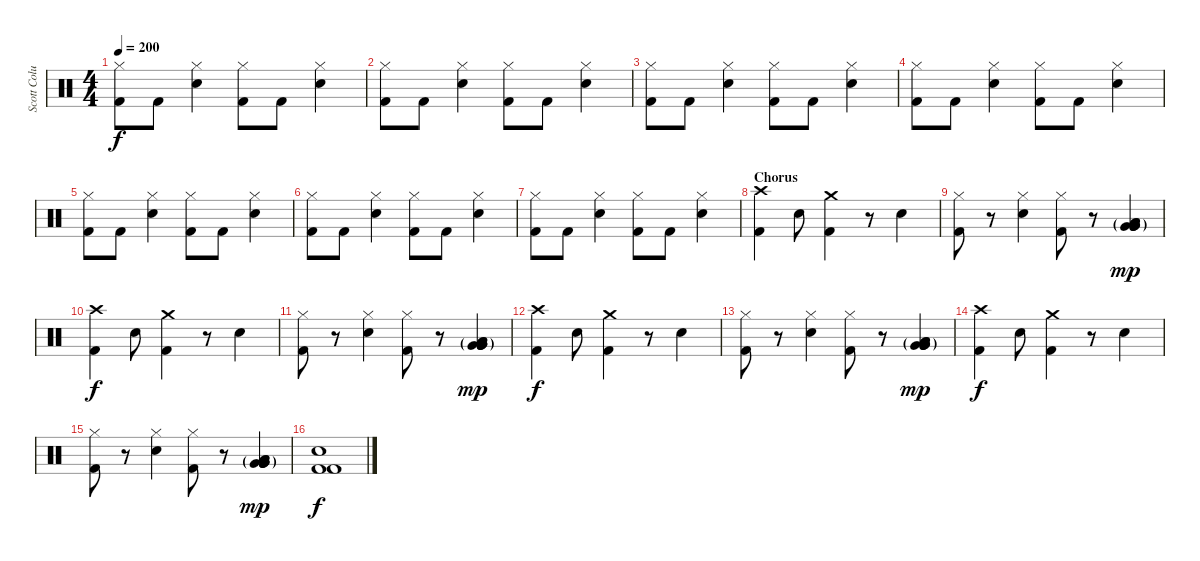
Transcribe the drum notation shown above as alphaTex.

\track ("Scott Columbus" "Scott Colu") {instrument percussion}
\staff {score}
\articulation defaults
\ts (4 4)
\tempo 200
\clef neutral
\ks c
("Hi-Hat (closed)" "Kick (hit) 2").8{dy f} "Kick (hit) 2".8 ("Hi-Hat (closed)" "Snare (hit) 2").4 ("Hi-Hat (closed)" "Kick (hit) 2").8 "Kick (hit) 2".8 ("Hi-Hat (closed)" "Snare (hit) 2").4 |
("Hi-Hat (closed)" "Kick (hit) 2").8 "Kick (hit) 2".8 ("Hi-Hat (closed)" "Snare (hit) 2").4 ("Hi-Hat (closed)" "Kick (hit) 2").8 "Kick (hit) 2".8 ("Hi-Hat (closed)" "Snare (hit) 2").4 |
("Hi-Hat (closed)" "Kick (hit) 2").8 "Kick (hit) 2".8 ("Hi-Hat (closed)" "Snare (hit) 2").4 ("Hi-Hat (closed)" "Kick (hit) 2").8 "Kick (hit) 2".8 ("Hi-Hat (closed)" "Snare (hit) 2").4 |
("Hi-Hat (closed)" "Kick (hit) 2").8 "Kick (hit) 2".8 ("Hi-Hat (closed)" "Snare (hit) 2").4 ("Hi-Hat (closed)" "Kick (hit) 2").8 "Kick (hit) 2".8 ("Hi-Hat (closed)" "Snare (hit) 2").4 |
("Hi-Hat (closed)" "Kick (hit) 2").8 "Kick (hit) 2".8 ("Hi-Hat (closed)" "Snare (hit) 2").4 ("Hi-Hat (closed)" "Kick (hit) 2").8 "Kick (hit) 2".8 ("Hi-Hat (closed)" "Snare (hit) 2").4 |
("Hi-Hat (closed)" "Kick (hit) 2").8 "Kick (hit) 2".8 ("Hi-Hat (closed)" "Snare (hit) 2").4 ("Hi-Hat (closed)" "Kick (hit) 2").8 "Kick (hit) 2".8 ("Hi-Hat (closed)" "Snare (hit) 2").4 |
("Hi-Hat (closed)" "Kick (hit) 2").8 "Kick (hit) 2".8 ("Hi-Hat (closed)" "Snare (hit) 2").4 ("Hi-Hat (closed)" "Kick (hit) 2").8 "Kick (hit) 2".8 ("Hi-Hat (closed)" "Snare (hit) 2").4 |
\section ("" "Chorus")
("Crash high (hit)" "Kick (hit) 2").4 "Snare (hit) 2".8 ("Crash medium (hit)" "Kick (hit) 2").4 r.8 "Snare (hit) 2".4 |
("Hi-Hat (closed)" "Kick (hit) 2").8 r.8 ("Hi-Hat (closed)" "Snare (hit) 2").4 ("Hi-Hat (closed)" "Kick (hit) 2").8 r.8 ("Very Low Tom (hit)"{g} "Very Low Tom (hit)"{g} "Very Low Tom (hit)"{g} "Very Low Tom (hit)" "Low Tom (hit)" "Low Tom (hit)"{g}).4{dy mp} |
("Crash high (hit)" "Kick (hit) 2").4{dy f} "Snare (hit) 2".8 ("Crash medium (hit)" "Kick (hit) 2").4 r.8 "Snare (hit) 2".4 |
("Hi-Hat (closed)" "Kick (hit) 2").8 r.8 ("Hi-Hat (closed)" "Snare (hit) 2").4 ("Hi-Hat (closed)" "Kick (hit) 2").8 r.8 ("Very Low Tom (hit)"{g} "Very Low Tom (hit)"{g} "Very Low Tom (hit)"{g} "Very Low Tom (hit)" "Low Tom (hit)" "Low Tom (hit)"{g}).4{dy mp} |
("Crash high (hit)" "Kick (hit) 2").4{dy f} "Snare (hit) 2".8 ("Crash medium (hit)" "Kick (hit) 2").4 r.8 "Snare (hit) 2".4 |
("Hi-Hat (closed)" "Kick (hit) 2").8 r.8 ("Hi-Hat (closed)" "Snare (hit) 2").4 ("Hi-Hat (closed)" "Kick (hit) 2").8 r.8 ("Very Low Tom (hit)"{g} "Very Low Tom (hit)"{g} "Very Low Tom (hit)"{g} "Very Low Tom (hit)" "Low Tom (hit)" "Low Tom (hit)"{g}).4{dy mp} |
("Crash high (hit)" "Kick (hit) 2").4{dy f} "Snare (hit) 2".8 ("Crash medium (hit)" "Kick (hit) 2").4 r.8 "Snare (hit) 2".4 |
("Hi-Hat (closed)" "Kick (hit) 2").8 r.8 ("Hi-Hat (closed)" "Snare (hit) 2").4 ("Hi-Hat (closed)" "Kick (hit) 2").8 r.8 ("Very Low Tom (hit)"{g} "Very Low Tom (hit)"{g} "Very Low Tom (hit)"{g} "Very Low Tom (hit)" "Low Tom (hit)" "Low Tom (hit)"{g}).4{dy mp} |
("Snare (hit) 2" "Kick (hit) 2" "Kick (hit) 2").1{dy f}
